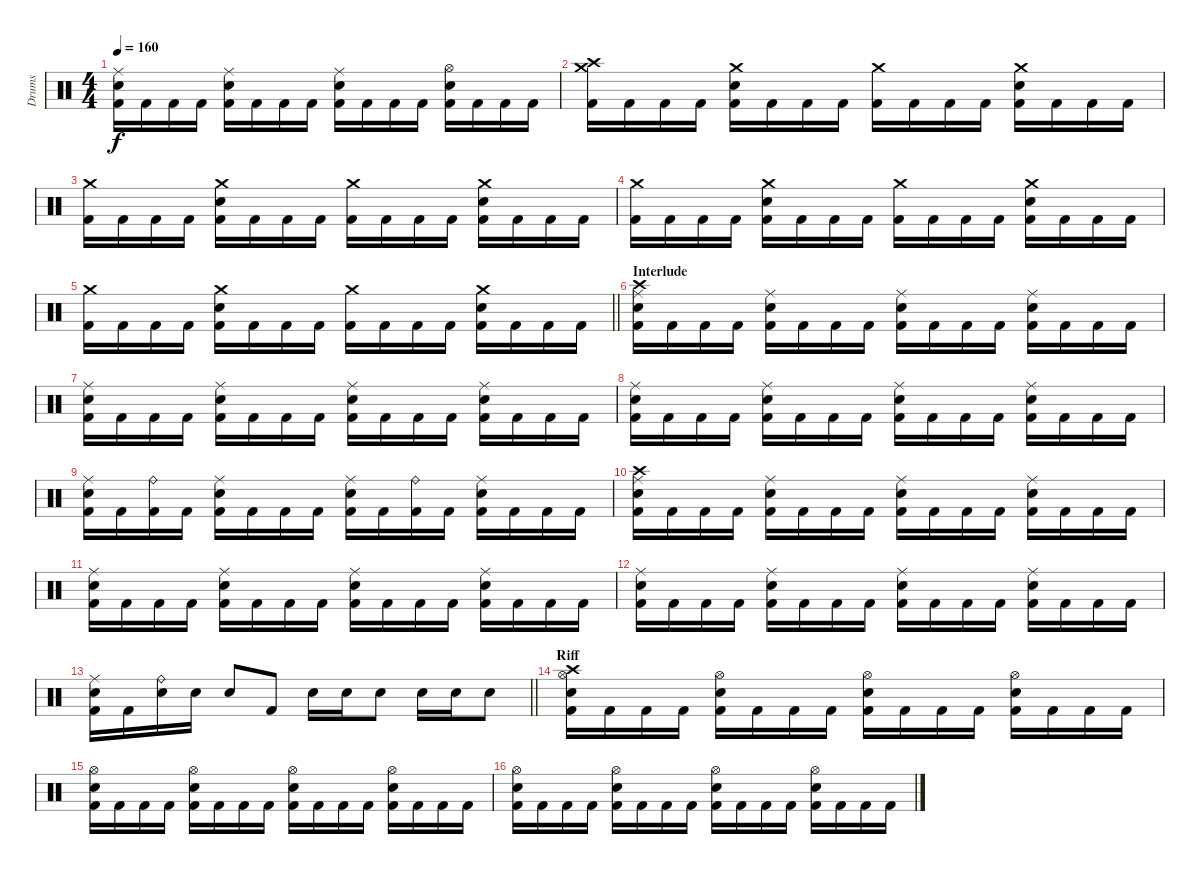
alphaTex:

\track ("Drums" "Drums") {instrument percussion}
\staff {score}
\articulation defaults
\ts (4 4)
\tempo 160
\clef neutral
\ks c
("Snare (hit) 2" "Kick (hit) 2" "Ride (middle)").16{dy f} "Kick (hit) 2".16 "Kick (hit) 2".16 "Kick (hit) 2".16 ("Snare (hit) 2" "Kick (hit) 2" "Ride (middle)").16 "Kick (hit) 2".16 "Kick (hit) 2".16 "Kick (hit) 2".16 ("Snare (hit) 2" "Kick (hit) 2" "Ride (middle)").16 "Kick (hit) 2".16 "Kick (hit) 2".16 "Kick (hit) 2".16 ("Snare (hit) 2" "Kick (hit) 2" "Hi-Hat (open)").16 "Kick (hit) 2".16 "Kick (hit) 2".16 "Kick (hit) 2".16 |
("Kick (hit) 2" "Crash medium (hit)" "Crash high (hit)").16 "Kick (hit) 2".16 "Kick (hit) 2".16 "Kick (hit) 2".16 ("Snare (hit) 2" "Kick (hit) 2" "Crash medium (hit)").16 "Kick (hit) 2".16 "Kick (hit) 2".16 "Kick (hit) 2".16 ("Kick (hit) 2" "Crash medium (hit)").16 "Kick (hit) 2".16 "Kick (hit) 2".16 "Kick (hit) 2".16 ("Snare (hit) 2" "Kick (hit) 2" "Crash medium (hit)").16 "Kick (hit) 2".16 "Kick (hit) 2".16 "Kick (hit) 2".16 |
("Kick (hit) 2" "Crash medium (hit)").16 "Kick (hit) 2".16 "Kick (hit) 2".16 "Kick (hit) 2".16 ("Snare (hit) 2" "Kick (hit) 2" "Crash medium (hit)").16 "Kick (hit) 2".16 "Kick (hit) 2".16 "Kick (hit) 2".16 ("Kick (hit) 2" "Crash medium (hit)").16 "Kick (hit) 2".16 "Kick (hit) 2".16 "Kick (hit) 2".16 ("Snare (hit) 2" "Kick (hit) 2" "Crash medium (hit)").16 "Kick (hit) 2".16 "Kick (hit) 2".16 "Kick (hit) 2".16 |
("Kick (hit) 2" "Crash medium (hit)").16 "Kick (hit) 2".16 "Kick (hit) 2".16 "Kick (hit) 2".16 ("Snare (hit) 2" "Kick (hit) 2" "Crash medium (hit)").16 "Kick (hit) 2".16 "Kick (hit) 2".16 "Kick (hit) 2".16 ("Kick (hit) 2" "Crash medium (hit)").16 "Kick (hit) 2".16 "Kick (hit) 2".16 "Kick (hit) 2".16 ("Snare (hit) 2" "Kick (hit) 2" "Crash medium (hit)").16 "Kick (hit) 2".16 "Kick (hit) 2".16 "Kick (hit) 2".16 |
\barLineRight lightlight
("Kick (hit) 2" "Crash medium (hit)").16 "Kick (hit) 2".16 "Kick (hit) 2".16 "Kick (hit) 2".16 ("Snare (hit) 2" "Kick (hit) 2" "Crash medium (hit)").16 "Kick (hit) 2".16 "Kick (hit) 2".16 "Kick (hit) 2".16 ("Kick (hit) 2" "Crash medium (hit)").16 "Kick (hit) 2".16 "Kick (hit) 2".16 "Kick (hit) 2".16 ("Snare (hit) 2" "Kick (hit) 2" "Crash medium (hit)").16 "Kick (hit) 2".16 "Kick (hit) 2".16 "Kick (hit) 2".16 |
\section ("" "Interlude")
("Snare (hit) 2" "Kick (hit) 2" "Ride (middle)" "Crash high (hit)").16 "Kick (hit) 2".16 "Kick (hit) 2".16 "Kick (hit) 2".16 ("Snare (hit) 2" "Kick (hit) 2" "Ride (middle)").16 "Kick (hit) 2".16 "Kick (hit) 2".16 "Kick (hit) 2".16 ("Snare (hit) 2" "Kick (hit) 2" "Ride (middle)").16 "Kick (hit) 2".16 "Kick (hit) 2".16 "Kick (hit) 2".16 ("Snare (hit) 2" "Kick (hit) 2" "Ride (middle)").16 "Kick (hit) 2".16 "Kick (hit) 2".16 "Kick (hit) 2".16 |
("Snare (hit) 2" "Kick (hit) 2" "Ride (middle)").16 "Kick (hit) 2".16 "Kick (hit) 2".16 "Kick (hit) 2".16 ("Snare (hit) 2" "Kick (hit) 2" "Ride (middle)").16 "Kick (hit) 2".16 "Kick (hit) 2".16 "Kick (hit) 2".16 ("Snare (hit) 2" "Kick (hit) 2" "Ride (middle)").16 "Kick (hit) 2".16 "Kick (hit) 2".16 "Kick (hit) 2".16 ("Snare (hit) 2" "Kick (hit) 2" "Ride (middle)").16 "Kick (hit) 2".16 "Kick (hit) 2".16 "Kick (hit) 2".16 |
("Snare (hit) 2" "Kick (hit) 2" "Ride (middle)").16 "Kick (hit) 2".16 "Kick (hit) 2".16 "Kick (hit) 2".16 ("Snare (hit) 2" "Kick (hit) 2" "Ride (middle)").16 "Kick (hit) 2".16 "Kick (hit) 2".16 "Kick (hit) 2".16 ("Snare (hit) 2" "Kick (hit) 2" "Ride (middle)").16 "Kick (hit) 2".16 "Kick (hit) 2".16 "Kick (hit) 2".16 ("Snare (hit) 2" "Kick (hit) 2" "Ride (middle)").16 "Kick (hit) 2".16 "Kick (hit) 2".16 "Kick (hit) 2".16 |
("Snare (hit) 2" "Kick (hit) 2" "Ride (middle)").16 "Kick (hit) 2".16 ("Kick (hit) 2" "Ride (bell)").16 "Kick (hit) 2".16 ("Snare (hit) 2" "Kick (hit) 2" "Ride (middle)").16 "Kick (hit) 2".16 "Kick (hit) 2".16 "Kick (hit) 2".16 ("Snare (hit) 2" "Kick (hit) 2" "Ride (middle)").16 "Kick (hit) 2".16 ("Kick (hit) 2" "Ride (bell)").16 "Kick (hit) 2".16 ("Snare (hit) 2" "Kick (hit) 2" "Ride (middle)").16 "Kick (hit) 2".16 "Kick (hit) 2".16 "Kick (hit) 2".16 |
("Snare (hit) 2" "Kick (hit) 2" "Ride (middle)" "Crash high (hit)").16 "Kick (hit) 2".16 "Kick (hit) 2".16 "Kick (hit) 2".16 ("Snare (hit) 2" "Kick (hit) 2" "Ride (middle)").16 "Kick (hit) 2".16 "Kick (hit) 2".16 "Kick (hit) 2".16 ("Snare (hit) 2" "Kick (hit) 2" "Ride (middle)").16 "Kick (hit) 2".16 "Kick (hit) 2".16 "Kick (hit) 2".16 ("Snare (hit) 2" "Kick (hit) 2" "Ride (middle)").16 "Kick (hit) 2".16 "Kick (hit) 2".16 "Kick (hit) 2".16 |
("Snare (hit) 2" "Kick (hit) 2" "Ride (middle)").16 "Kick (hit) 2".16 "Kick (hit) 2".16 "Kick (hit) 2".16 ("Snare (hit) 2" "Kick (hit) 2" "Ride (middle)").16 "Kick (hit) 2".16 "Kick (hit) 2".16 "Kick (hit) 2".16 ("Snare (hit) 2" "Kick (hit) 2" "Ride (middle)").16 "Kick (hit) 2".16 "Kick (hit) 2".16 "Kick (hit) 2".16 ("Snare (hit) 2" "Kick (hit) 2" "Ride (middle)").16 "Kick (hit) 2".16 "Kick (hit) 2".16 "Kick (hit) 2".16 |
("Snare (hit) 2" "Kick (hit) 2" "Ride (middle)").16 "Kick (hit) 2".16 "Kick (hit) 2".16 "Kick (hit) 2".16 ("Snare (hit) 2" "Kick (hit) 2" "Ride (middle)").16 "Kick (hit) 2".16 "Kick (hit) 2".16 "Kick (hit) 2".16 ("Snare (hit) 2" "Kick (hit) 2" "Ride (middle)").16 "Kick (hit) 2".16 "Kick (hit) 2".16 "Kick (hit) 2".16 ("Snare (hit) 2" "Kick (hit) 2" "Ride (middle)").16 "Kick (hit) 2".16 "Kick (hit) 2".16 "Kick (hit) 2".16 |
\barLineRight lightlight
("Snare (hit) 2" "Kick (hit) 2" "Ride (middle)").16 "Kick (hit) 2".16 ("Snare (hit) 2" "Ride (bell)").16 "Snare (hit) 2".16 "Snare (hit) 2".8 "Kick (hit) 2".8 "Snare (hit) 2".16 "Snare (hit) 2".16 "Snare (hit) 2".8 "Snare (hit) 2".16 "Snare (hit) 2".16 "Snare (hit) 2".8 |
\section ("" "Riff")
("Snare (hit) 2" "Kick (hit) 2" "Hi-Hat (open)" "Crash high (hit)").16 "Kick (hit) 2".16 "Kick (hit) 2".16 "Kick (hit) 2".16 ("Snare (hit) 2" "Kick (hit) 2" "Hi-Hat (open)").16 "Kick (hit) 2".16 "Kick (hit) 2".16 "Kick (hit) 2".16 ("Snare (hit) 2" "Kick (hit) 2" "Hi-Hat (open)").16 "Kick (hit) 2".16 "Kick (hit) 2".16 "Kick (hit) 2".16 ("Snare (hit) 2" "Kick (hit) 2" "Hi-Hat (open)").16 "Kick (hit) 2".16 "Kick (hit) 2".16 "Kick (hit) 2".16 |
("Snare (hit) 2" "Kick (hit) 2" "Hi-Hat (open)").16 "Kick (hit) 2".16 "Kick (hit) 2".16 "Kick (hit) 2".16 ("Snare (hit) 2" "Kick (hit) 2" "Hi-Hat (open)").16 "Kick (hit) 2".16 "Kick (hit) 2".16 "Kick (hit) 2".16 ("Snare (hit) 2" "Kick (hit) 2" "Hi-Hat (open)").16 "Kick (hit) 2".16 "Kick (hit) 2".16 "Kick (hit) 2".16 ("Snare (hit) 2" "Kick (hit) 2" "Hi-Hat (open)").16 "Kick (hit) 2".16 "Kick (hit) 2".16 "Kick (hit) 2".16 |
("Snare (hit) 2" "Kick (hit) 2" "Hi-Hat (open)").16 "Kick (hit) 2".16 "Kick (hit) 2".16 "Kick (hit) 2".16 ("Snare (hit) 2" "Kick (hit) 2" "Hi-Hat (open)").16 "Kick (hit) 2".16 "Kick (hit) 2".16 "Kick (hit) 2".16 ("Snare (hit) 2" "Kick (hit) 2" "Hi-Hat (open)").16 "Kick (hit) 2".16 "Kick (hit) 2".16 "Kick (hit) 2".16 ("Snare (hit) 2" "Kick (hit) 2" "Hi-Hat (open)").16 "Kick (hit) 2".16 "Kick (hit) 2".16 "Kick (hit) 2".16
